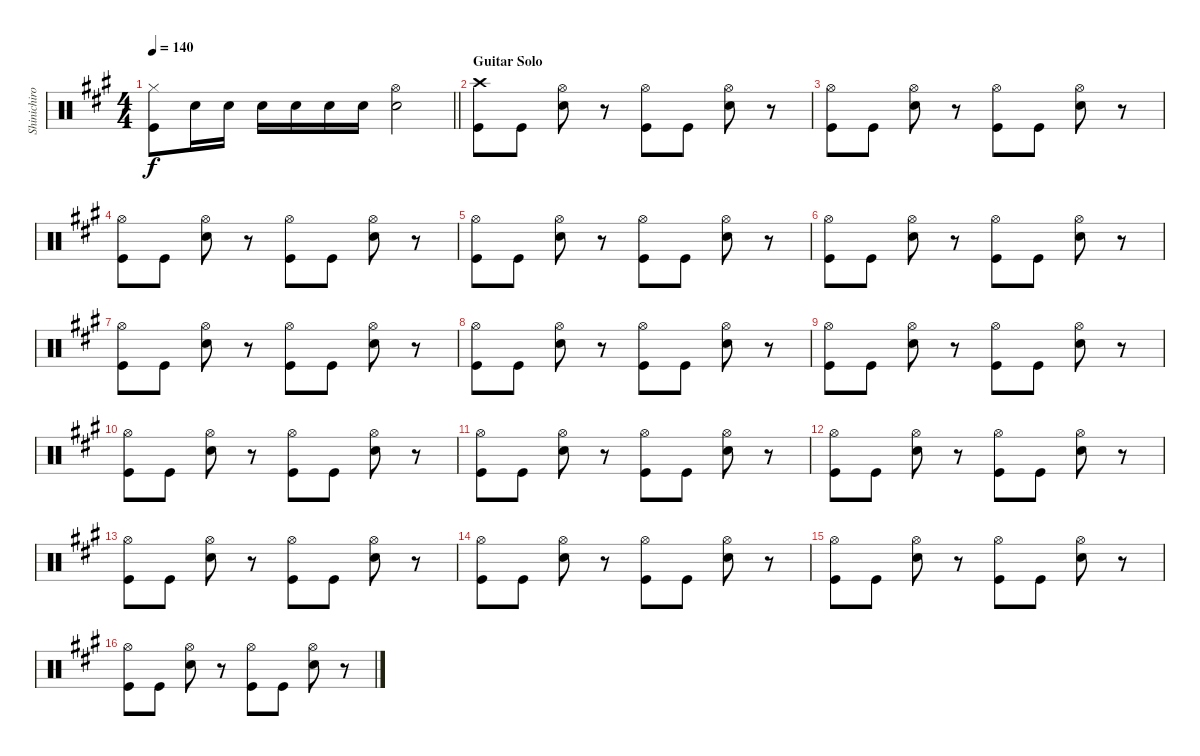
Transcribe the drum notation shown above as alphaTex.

\track ("Shinichiro Drums" "Shinichiro") {instrument percussion}
\staff {score}
\articulation defaults
\ts (4 4)
\tempo 140
\clef neutral
\barLineRight lightlight
\ks a
("Hi-Hat (closed)" "Kick (hit)").8{dy f} "Snare (hit) 2".16 "Snare (hit) 2".16 "Snare (hit) 2".16 "Snare (hit) 2".16 "Snare (hit) 2".16 "Snare (hit) 2".16 ("Hi-Hat (open)" "Snare (hit) 2").2 |
\section ("" "Guitar Solo")
("Crash high (hit)" "Kick (hit)").8 "Kick (hit)".8 ("Hi-Hat (open)" "Snare (hit) 2").8 r.8 ("Hi-Hat (open)" "Kick (hit)").8 "Kick (hit)".8 ("Hi-Hat (open)" "Snare (hit) 2").8 r.8 |
("Hi-Hat (open)" "Kick (hit)").8 "Kick (hit)".8 ("Hi-Hat (open)" "Snare (hit) 2").8 r.8 ("Hi-Hat (open)" "Kick (hit)").8 "Kick (hit)".8 ("Hi-Hat (open)" "Snare (hit) 2").8 r.8 |
("Hi-Hat (open)" "Kick (hit)").8 "Kick (hit)".8 ("Hi-Hat (open)" "Snare (hit) 2").8 r.8 ("Hi-Hat (open)" "Kick (hit)").8 "Kick (hit)".8 ("Hi-Hat (open)" "Snare (hit) 2").8 r.8 |
("Hi-Hat (open)" "Kick (hit)").8 "Kick (hit)".8 ("Hi-Hat (open)" "Snare (hit) 2").8 r.8 ("Hi-Hat (open)" "Kick (hit)").8 "Kick (hit)".8 ("Hi-Hat (open)" "Snare (hit) 2").8 r.8 |
("Hi-Hat (open)" "Kick (hit)").8 "Kick (hit)".8 ("Hi-Hat (open)" "Snare (hit) 2").8 r.8 ("Hi-Hat (open)" "Kick (hit)").8 "Kick (hit)".8 ("Hi-Hat (open)" "Snare (hit) 2").8 r.8 |
("Hi-Hat (open)" "Kick (hit)").8 "Kick (hit)".8 ("Hi-Hat (open)" "Snare (hit) 2").8 r.8 ("Hi-Hat (open)" "Kick (hit)").8 "Kick (hit)".8 ("Hi-Hat (open)" "Snare (hit) 2").8 r.8 |
("Hi-Hat (open)" "Kick (hit)").8 "Kick (hit)".8 ("Hi-Hat (open)" "Snare (hit) 2").8 r.8 ("Hi-Hat (open)" "Kick (hit)").8 "Kick (hit)".8 ("Hi-Hat (open)" "Snare (hit) 2").8 r.8 |
("Hi-Hat (open)" "Kick (hit)").8 "Kick (hit)".8 ("Hi-Hat (open)" "Snare (hit) 2").8 r.8 ("Hi-Hat (open)" "Kick (hit)").8 "Kick (hit)".8 ("Hi-Hat (open)" "Snare (hit) 2").8 r.8 |
("Hi-Hat (open)" "Kick (hit)").8 "Kick (hit)".8 ("Hi-Hat (open)" "Snare (hit) 2").8 r.8 ("Hi-Hat (open)" "Kick (hit)").8 "Kick (hit)".8 ("Hi-Hat (open)" "Snare (hit) 2").8 r.8 |
("Hi-Hat (open)" "Kick (hit)").8 "Kick (hit)".8 ("Hi-Hat (open)" "Snare (hit) 2").8 r.8 ("Hi-Hat (open)" "Kick (hit)").8 "Kick (hit)".8 ("Hi-Hat (open)" "Snare (hit) 2").8 r.8 |
("Hi-Hat (open)" "Kick (hit)").8 "Kick (hit)".8 ("Hi-Hat (open)" "Snare (hit) 2").8 r.8 ("Hi-Hat (open)" "Kick (hit)").8 "Kick (hit)".8 ("Hi-Hat (open)" "Snare (hit) 2").8 r.8 |
("Hi-Hat (open)" "Kick (hit)").8 "Kick (hit)".8 ("Hi-Hat (open)" "Snare (hit) 2").8 r.8 ("Hi-Hat (open)" "Kick (hit)").8 "Kick (hit)".8 ("Hi-Hat (open)" "Snare (hit) 2").8 r.8 |
("Hi-Hat (open)" "Kick (hit)").8 "Kick (hit)".8 ("Hi-Hat (open)" "Snare (hit) 2").8 r.8 ("Hi-Hat (open)" "Kick (hit)").8 "Kick (hit)".8 ("Hi-Hat (open)" "Snare (hit) 2").8 r.8 |
("Hi-Hat (open)" "Kick (hit)").8 "Kick (hit)".8 ("Hi-Hat (open)" "Snare (hit) 2").8 r.8 ("Hi-Hat (open)" "Kick (hit)").8 "Kick (hit)".8 ("Hi-Hat (open)" "Snare (hit) 2").8 r.8 |
("Hi-Hat (open)" "Kick (hit)").8 "Kick (hit)".8 ("Hi-Hat (open)" "Snare (hit) 2").8 r.8 ("Hi-Hat (open)" "Kick (hit)").8 "Kick (hit)".8 ("Hi-Hat (open)" "Snare (hit) 2").8 r.8
